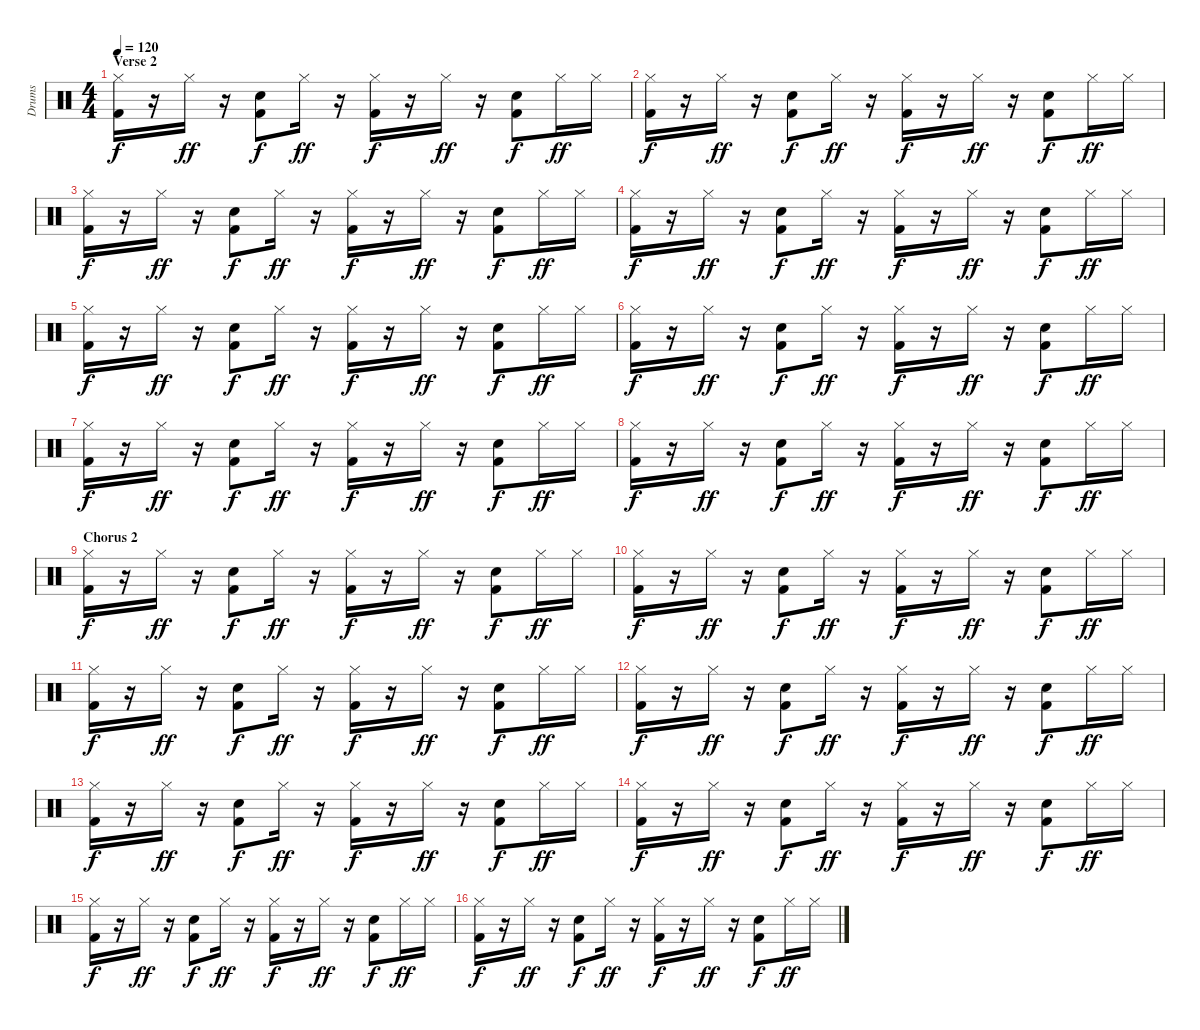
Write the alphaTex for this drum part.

\track ("Drums" "Drums") {instrument percussion}
\staff {score}
\articulation defaults
\ts (4 4)
\section ("" "Verse 2")
\tempo 120
\clef neutral
\ks c
("Hi-Hat (closed)" "Kick (hit) 2").16{dy f} r.16 "Hi-Hat (closed)".16{dy ff} r.16 ("Electric Snare (hit)" "Kick (hit) 2").8{dy f} "Hi-Hat (closed)".16{dy ff} r.16 ("Hi-Hat (closed)" "Kick (hit) 2").16{dy f} r.16 "Hi-Hat (closed)".16{dy ff} r.16 ("Electric Snare (hit)" "Kick (hit) 2").8{dy f} "Hi-Hat (closed)".16{dy ff} "Hi-Hat (closed)".16 |
("Hi-Hat (closed)" "Kick (hit) 2").16{dy f} r.16 "Hi-Hat (closed)".16{dy ff} r.16 ("Electric Snare (hit)" "Kick (hit) 2").8{dy f} "Hi-Hat (closed)".16{dy ff} r.16 ("Hi-Hat (closed)" "Kick (hit) 2").16{dy f} r.16 "Hi-Hat (closed)".16{dy ff} r.16 ("Electric Snare (hit)" "Kick (hit) 2").8{dy f} "Hi-Hat (closed)".16{dy ff} "Hi-Hat (closed)".16 |
("Hi-Hat (closed)" "Kick (hit) 2").16{dy f} r.16 "Hi-Hat (closed)".16{dy ff} r.16 ("Electric Snare (hit)" "Kick (hit) 2").8{dy f} "Hi-Hat (closed)".16{dy ff} r.16 ("Hi-Hat (closed)" "Kick (hit) 2").16{dy f} r.16 "Hi-Hat (closed)".16{dy ff} r.16 ("Electric Snare (hit)" "Kick (hit) 2").8{dy f} "Hi-Hat (closed)".16{dy ff} "Hi-Hat (closed)".16 |
("Hi-Hat (closed)" "Kick (hit) 2").16{dy f} r.16 "Hi-Hat (closed)".16{dy ff} r.16 ("Electric Snare (hit)" "Kick (hit) 2").8{dy f} "Hi-Hat (closed)".16{dy ff} r.16 ("Hi-Hat (closed)" "Kick (hit) 2").16{dy f} r.16 "Hi-Hat (closed)".16{dy ff} r.16 ("Electric Snare (hit)" "Kick (hit) 2").8{dy f} "Hi-Hat (closed)".16{dy ff} "Hi-Hat (closed)".16 |
("Hi-Hat (closed)" "Kick (hit) 2").16{dy f} r.16 "Hi-Hat (closed)".16{dy ff} r.16 ("Electric Snare (hit)" "Kick (hit) 2").8{dy f} "Hi-Hat (closed)".16{dy ff} r.16 ("Hi-Hat (closed)" "Kick (hit) 2").16{dy f} r.16 "Hi-Hat (closed)".16{dy ff} r.16 ("Electric Snare (hit)" "Kick (hit) 2").8{dy f} "Hi-Hat (closed)".16{dy ff} "Hi-Hat (closed)".16 |
("Hi-Hat (closed)" "Kick (hit) 2").16{dy f} r.16 "Hi-Hat (closed)".16{dy ff} r.16 ("Electric Snare (hit)" "Kick (hit) 2").8{dy f} "Hi-Hat (closed)".16{dy ff} r.16 ("Hi-Hat (closed)" "Kick (hit) 2").16{dy f} r.16 "Hi-Hat (closed)".16{dy ff} r.16 ("Electric Snare (hit)" "Kick (hit) 2").8{dy f} "Hi-Hat (closed)".16{dy ff} "Hi-Hat (closed)".16 |
("Hi-Hat (closed)" "Kick (hit) 2").16{dy f} r.16 "Hi-Hat (closed)".16{dy ff} r.16 ("Electric Snare (hit)" "Kick (hit) 2").8{dy f} "Hi-Hat (closed)".16{dy ff} r.16 ("Hi-Hat (closed)" "Kick (hit) 2").16{dy f} r.16 "Hi-Hat (closed)".16{dy ff} r.16 ("Electric Snare (hit)" "Kick (hit) 2").8{dy f} "Hi-Hat (closed)".16{dy ff} "Hi-Hat (closed)".16 |
("Hi-Hat (closed)" "Kick (hit) 2").16{dy f} r.16 "Hi-Hat (closed)".16{dy ff} r.16 ("Electric Snare (hit)" "Kick (hit) 2").8{dy f} "Hi-Hat (closed)".16{dy ff} r.16 ("Hi-Hat (closed)" "Kick (hit) 2").16{dy f} r.16 "Hi-Hat (closed)".16{dy ff} r.16 ("Electric Snare (hit)" "Kick (hit) 2").8{dy f} "Hi-Hat (closed)".16{dy ff} "Hi-Hat (closed)".16 |
\section ("" "Chorus 2")
("Hi-Hat (closed)" "Kick (hit) 2").16{dy f} r.16 "Hi-Hat (closed)".16{dy ff} r.16 ("Electric Snare (hit)" "Kick (hit) 2").8{dy f} "Hi-Hat (closed)".16{dy ff} r.16 ("Hi-Hat (closed)" "Kick (hit) 2").16{dy f} r.16 "Hi-Hat (closed)".16{dy ff} r.16 ("Electric Snare (hit)" "Kick (hit) 2").8{dy f} "Hi-Hat (closed)".16{dy ff} "Hi-Hat (closed)".16 |
("Hi-Hat (closed)" "Kick (hit) 2").16{dy f} r.16 "Hi-Hat (closed)".16{dy ff} r.16 ("Electric Snare (hit)" "Kick (hit) 2").8{dy f} "Hi-Hat (closed)".16{dy ff} r.16 ("Hi-Hat (closed)" "Kick (hit) 2").16{dy f} r.16 "Hi-Hat (closed)".16{dy ff} r.16 ("Electric Snare (hit)" "Kick (hit) 2").8{dy f} "Hi-Hat (closed)".16{dy ff} "Hi-Hat (closed)".16 |
("Hi-Hat (closed)" "Kick (hit) 2").16{dy f} r.16 "Hi-Hat (closed)".16{dy ff} r.16 ("Electric Snare (hit)" "Kick (hit) 2").8{dy f} "Hi-Hat (closed)".16{dy ff} r.16 ("Hi-Hat (closed)" "Kick (hit) 2").16{dy f} r.16 "Hi-Hat (closed)".16{dy ff} r.16 ("Electric Snare (hit)" "Kick (hit) 2").8{dy f} "Hi-Hat (closed)".16{dy ff} "Hi-Hat (closed)".16 |
("Hi-Hat (closed)" "Kick (hit) 2").16{dy f} r.16 "Hi-Hat (closed)".16{dy ff} r.16 ("Electric Snare (hit)" "Kick (hit) 2").8{dy f} "Hi-Hat (closed)".16{dy ff} r.16 ("Hi-Hat (closed)" "Kick (hit) 2").16{dy f} r.16 "Hi-Hat (closed)".16{dy ff} r.16 ("Electric Snare (hit)" "Kick (hit) 2").8{dy f} "Hi-Hat (closed)".16{dy ff} "Hi-Hat (closed)".16 |
("Hi-Hat (closed)" "Kick (hit) 2").16{dy f} r.16 "Hi-Hat (closed)".16{dy ff} r.16 ("Electric Snare (hit)" "Kick (hit) 2").8{dy f} "Hi-Hat (closed)".16{dy ff} r.16 ("Hi-Hat (closed)" "Kick (hit) 2").16{dy f} r.16 "Hi-Hat (closed)".16{dy ff} r.16 ("Electric Snare (hit)" "Kick (hit) 2").8{dy f} "Hi-Hat (closed)".16{dy ff} "Hi-Hat (closed)".16 |
("Hi-Hat (closed)" "Kick (hit) 2").16{dy f} r.16 "Hi-Hat (closed)".16{dy ff} r.16 ("Electric Snare (hit)" "Kick (hit) 2").8{dy f} "Hi-Hat (closed)".16{dy ff} r.16 ("Hi-Hat (closed)" "Kick (hit) 2").16{dy f} r.16 "Hi-Hat (closed)".16{dy ff} r.16 ("Electric Snare (hit)" "Kick (hit) 2").8{dy f} "Hi-Hat (closed)".16{dy ff} "Hi-Hat (closed)".16 |
("Hi-Hat (closed)" "Kick (hit) 2").16{dy f} r.16 "Hi-Hat (closed)".16{dy ff} r.16 ("Electric Snare (hit)" "Kick (hit) 2").8{dy f} "Hi-Hat (closed)".16{dy ff} r.16 ("Hi-Hat (closed)" "Kick (hit) 2").16{dy f} r.16 "Hi-Hat (closed)".16{dy ff} r.16 ("Electric Snare (hit)" "Kick (hit) 2").8{dy f} "Hi-Hat (closed)".16{dy ff} "Hi-Hat (closed)".16 |
("Hi-Hat (closed)" "Kick (hit) 2").16{dy f} r.16 "Hi-Hat (closed)".16{dy ff} r.16 ("Electric Snare (hit)" "Kick (hit) 2").8{dy f} "Hi-Hat (closed)".16{dy ff} r.16 ("Hi-Hat (closed)" "Kick (hit) 2").16{dy f} r.16 "Hi-Hat (closed)".16{dy ff} r.16 ("Electric Snare (hit)" "Kick (hit) 2").8{dy f} "Hi-Hat (closed)".16{dy ff} "Hi-Hat (closed)".16
